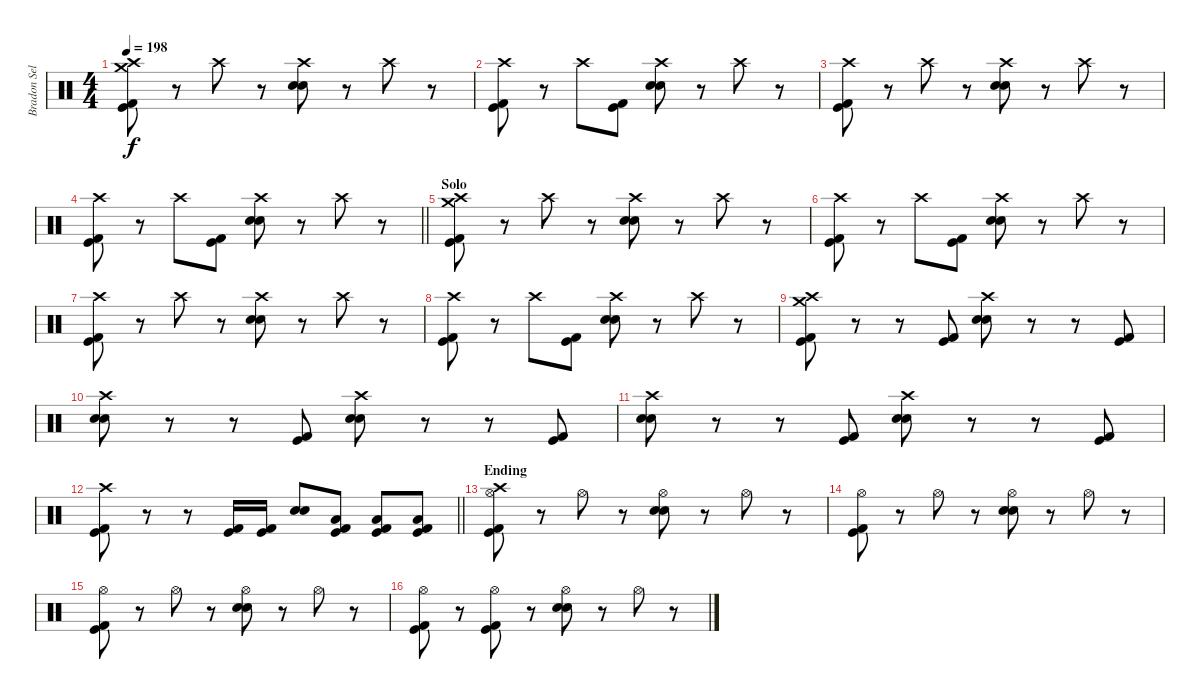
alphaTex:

\track ("Bradon Sellar" "Bradon Sel") {instrument percussion}
\staff {score}
\articulation defaults
\ts (4 4)
\tempo 198
\clef neutral
\ks c
("Crash medium (hit)" "Crash high (hit)" "Kick (hit) 2" "Kick (hit)").8{dy f} r.8 "Crash high (hit)".8 r.8 ("Crash high (hit)" "Electric Snare (hit)" "Snare (hit) 2").8 r.8 "Crash high (hit)".8 r.8 |
("Crash high (hit)" "Kick (hit) 2" "Kick (hit)").8 r.8 "Crash high (hit)".8 ("Kick (hit) 2" "Kick (hit)").8 ("Crash high (hit)" "Electric Snare (hit)" "Snare (hit) 2").8 r.8 "Crash high (hit)".8 r.8 |
("Crash high (hit)" "Kick (hit) 2" "Kick (hit)").8 r.8 "Crash high (hit)".8 r.8 ("Crash high (hit)" "Electric Snare (hit)" "Snare (hit) 2").8 r.8 "Crash high (hit)".8 r.8 |
\barLineRight lightlight
("Crash high (hit)" "Kick (hit) 2" "Kick (hit)").8 r.8 "Crash high (hit)".8 ("Kick (hit) 2" "Kick (hit)").8 ("Crash high (hit)" "Electric Snare (hit)" "Snare (hit) 2").8 r.8 "Crash high (hit)".8 r.8 |
\section ("" "Solo")
("Crash medium (hit)" "Crash high (hit)" "Kick (hit) 2" "Kick (hit)").8 r.8 "Crash high (hit)".8 r.8 ("Crash high (hit)" "Electric Snare (hit)" "Snare (hit) 2").8 r.8 "Crash high (hit)".8 r.8 |
("Crash high (hit)" "Kick (hit) 2" "Kick (hit)").8 r.8 "Crash high (hit)".8 ("Kick (hit) 2" "Kick (hit)").8 ("Crash high (hit)" "Electric Snare (hit)" "Snare (hit) 2").8 r.8 "Crash high (hit)".8 r.8 |
("Crash high (hit)" "Kick (hit) 2" "Kick (hit)").8 r.8 "Crash high (hit)".8 r.8 ("Crash high (hit)" "Electric Snare (hit)" "Snare (hit) 2").8 r.8 "Crash high (hit)".8 r.8 |
("Crash high (hit)" "Kick (hit) 2" "Kick (hit)").8 r.8 "Crash high (hit)".8 ("Kick (hit) 2" "Kick (hit)").8 ("Crash high (hit)" "Electric Snare (hit)" "Snare (hit) 2").8 r.8 "Crash high (hit)".8 r.8 |
("Crash medium (hit)" "Crash high (hit)" "Kick (hit) 2" "Kick (hit)").8 r.8 r.8 ("Kick (hit) 2" "Kick (hit)").8 ("Crash high (hit)" "Electric Snare (hit)" "Snare (hit) 2").8 r.8 r.8 ("Kick (hit) 2" "Kick (hit)").8 |
("Crash high (hit)" "Electric Snare (hit)" "Snare (hit) 2").8 r.8 r.8 ("Kick (hit) 2" "Kick (hit)").8 ("Crash high (hit)" "Electric Snare (hit)" "Snare (hit) 2").8 r.8 r.8 ("Kick (hit) 2" "Kick (hit)").8 |
("Crash high (hit)" "Electric Snare (hit)" "Snare (hit) 2").8 r.8 r.8 ("Kick (hit) 2" "Kick (hit)").8 ("Crash high (hit)" "Electric Snare (hit)" "Snare (hit) 2").8 r.8 r.8 ("Kick (hit) 2" "Kick (hit)").8 |
\barLineRight lightlight
("Crash high (hit)" "Kick (hit) 2" "Kick (hit)").8 r.8 r.8 ("Kick (hit) 2" "Kick (hit)").16 ("Kick (hit) 2" "Kick (hit)").16 ("Electric Snare (hit)" "Snare (hit) 2").8 ("Kick (hit) 2" "Low Floor Tom (hit)" "Kick (hit)").8 ("Kick (hit) 2" "Low Floor Tom (hit)" "Kick (hit)").8 ("Kick (hit) 2" "Low Floor Tom (hit)" "Kick (hit)").8 |
\section ("" "Ending")
("Crash high (hit)" "Hi-Hat (open)" "Kick (hit) 2" "Kick (hit)").8 r.8 "Hi-Hat (open)".8 r.8 ("Hi-Hat (open)" "Electric Snare (hit)" "Snare (hit) 2").8 r.8 "Hi-Hat (open)".8 r.8 |
("Hi-Hat (open)" "Kick (hit) 2" "Kick (hit)").8 r.8 "Hi-Hat (open)".8 r.8 ("Hi-Hat (open)" "Electric Snare (hit)" "Snare (hit) 2").8 r.8 "Hi-Hat (open)".8 r.8 |
("Hi-Hat (open)" "Kick (hit) 2" "Kick (hit)").8 r.8 "Hi-Hat (open)".8 r.8 ("Hi-Hat (open)" "Electric Snare (hit)" "Snare (hit) 2").8 r.8 "Hi-Hat (open)".8 r.8 |
("Hi-Hat (open)" "Kick (hit) 2" "Kick (hit)").8 r.8 ("Hi-Hat (open)" "Kick (hit) 2" "Kick (hit)").8 r.8 ("Hi-Hat (open)" "Electric Snare (hit)" "Snare (hit) 2").8 r.8 "Hi-Hat (open)".8 r.8
